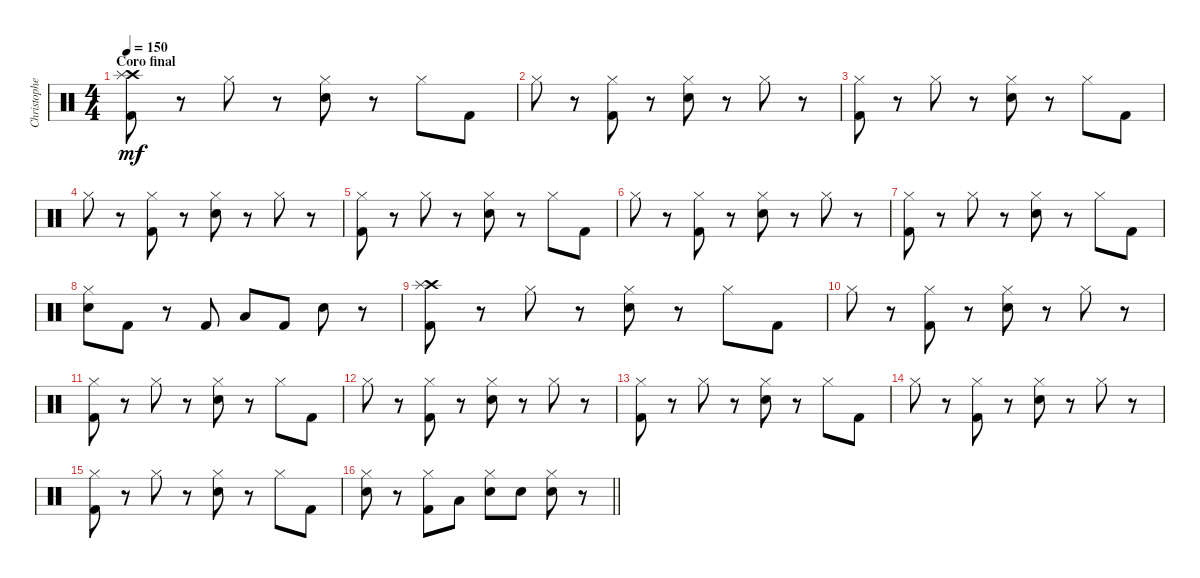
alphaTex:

\track ("Christopher" "Christophe") {instrument percussion}
\staff {score}
\articulation defaults
\ts (4 4)
\section ("" "Coro final")
\tempo 150
\clef neutral
\ks c
("Crash high (hit)" "Splash (hit)" "Kick (hit) 2").8{dy mf} r.8 "Hi-Hat (closed)".8 r.8 ("Hi-Hat (closed)" "Electric Snare (hit)").8 r.8 "Hi-Hat (closed)".8 "Kick (hit) 2".8 |
"Hi-Hat (closed)".8 r.8 ("Hi-Hat (closed)" "Kick (hit) 2").8 r.8 ("Hi-Hat (closed)" "Electric Snare (hit)").8 r.8 "Hi-Hat (closed)".8 r.8 |
("Hi-Hat (closed)" "Kick (hit) 2").8 r.8 "Hi-Hat (closed)".8 r.8 ("Hi-Hat (closed)" "Electric Snare (hit)").8 r.8 "Hi-Hat (closed)".8 "Kick (hit) 2".8 |
"Hi-Hat (closed)".8 r.8 ("Hi-Hat (closed)" "Kick (hit) 2").8 r.8 ("Hi-Hat (closed)" "Electric Snare (hit)").8 r.8 "Hi-Hat (closed)".8 r.8 |
("Hi-Hat (closed)" "Kick (hit) 2").8 r.8 "Hi-Hat (closed)".8 r.8 ("Hi-Hat (closed)" "Electric Snare (hit)").8 r.8 "Hi-Hat (closed)".8 "Kick (hit) 2".8 |
"Hi-Hat (closed)".8 r.8 ("Hi-Hat (closed)" "Kick (hit) 2").8 r.8 ("Hi-Hat (closed)" "Electric Snare (hit)").8 r.8 "Hi-Hat (closed)".8 r.8 |
("Hi-Hat (closed)" "Kick (hit) 2").8 r.8 "Hi-Hat (closed)".8 r.8 ("Hi-Hat (closed)" "Electric Snare (hit)").8 r.8 "Hi-Hat (closed)".8 "Kick (hit) 2".8 |
("Hi-Hat (closed)" "Electric Snare (hit)").8 "Kick (hit) 2".8 r.8 "Kick (hit) 2".8 "Low Tom (hit)".8 "Kick (hit) 2".8 "Electric Snare (hit)".8 r.8 |
("Crash high (hit)" "Splash (hit)" "Kick (hit) 2").8 r.8 "Hi-Hat (closed)".8 r.8 ("Hi-Hat (closed)" "Electric Snare (hit)").8 r.8 "Hi-Hat (closed)".8 "Kick (hit) 2".8 |
"Hi-Hat (closed)".8 r.8 ("Hi-Hat (closed)" "Kick (hit) 2").8 r.8 ("Hi-Hat (closed)" "Electric Snare (hit)").8 r.8 "Hi-Hat (closed)".8 r.8 |
("Hi-Hat (closed)" "Kick (hit) 2").8 r.8 "Hi-Hat (closed)".8 r.8 ("Hi-Hat (closed)" "Electric Snare (hit)").8 r.8 "Hi-Hat (closed)".8 "Kick (hit) 2".8 |
"Hi-Hat (closed)".8 r.8 ("Hi-Hat (closed)" "Kick (hit) 2").8 r.8 ("Hi-Hat (closed)" "Electric Snare (hit)").8 r.8 "Hi-Hat (closed)".8 r.8 |
("Hi-Hat (closed)" "Kick (hit) 2").8 r.8 "Hi-Hat (closed)".8 r.8 ("Hi-Hat (closed)" "Electric Snare (hit)").8 r.8 "Hi-Hat (closed)".8 "Kick (hit) 2".8 |
"Hi-Hat (closed)".8 r.8 ("Hi-Hat (closed)" "Kick (hit) 2").8 r.8 ("Hi-Hat (closed)" "Electric Snare (hit)").8 r.8 "Hi-Hat (closed)".8 r.8 |
("Hi-Hat (closed)" "Kick (hit) 2").8 r.8 "Hi-Hat (closed)".8 r.8 ("Hi-Hat (closed)" "Electric Snare (hit)").8 r.8 "Hi-Hat (closed)".8 "Kick (hit) 2".8 |
\barLineRight lightlight
("Hi-Hat (closed)" "Electric Snare (hit)").8 r.8 ("Hi-Hat (closed)" "Kick (hit) 2").8 "Low Tom (hit)".8 ("Hi-Hat (closed)" "Electric Snare (hit)").8 "Electric Snare (hit)".8 ("Hi-Hat (closed)" "Electric Snare (hit)").8 r.8
